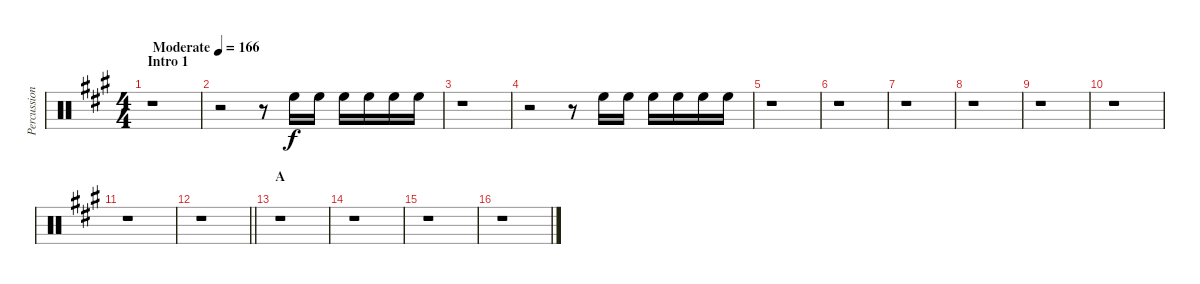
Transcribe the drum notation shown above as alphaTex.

\track ("Percussion I" "Percussion") {instrument percussion}
\staff {score}
\articulation defaults
\ts (4 4)
\section ("" "Intro 1")
\tempo (166 "Moderate")
\clef neutral
\ks a
r.1{dy f} |
r.2 r.8 "High Floor Tom (hit)".16 "High Floor Tom (hit)".16 "High Floor Tom (hit)".16 "High Floor Tom (hit)".16 "High Floor Tom (hit)".16 "High Floor Tom (hit)".16 |
r.1 |
r.2 r.8 "High Floor Tom (hit)".16 "High Floor Tom (hit)".16 "High Floor Tom (hit)".16 "High Floor Tom (hit)".16 "High Floor Tom (hit)".16 "High Floor Tom (hit)".16 |
r.1 |
r.1 |
r.1 |
r.1 |
r.1 |
r.1 |
r.1 |
\barLineRight lightlight
r.1 |
\section ("" "A")
r.1 |
r.1 |
r.1 |
r.1
